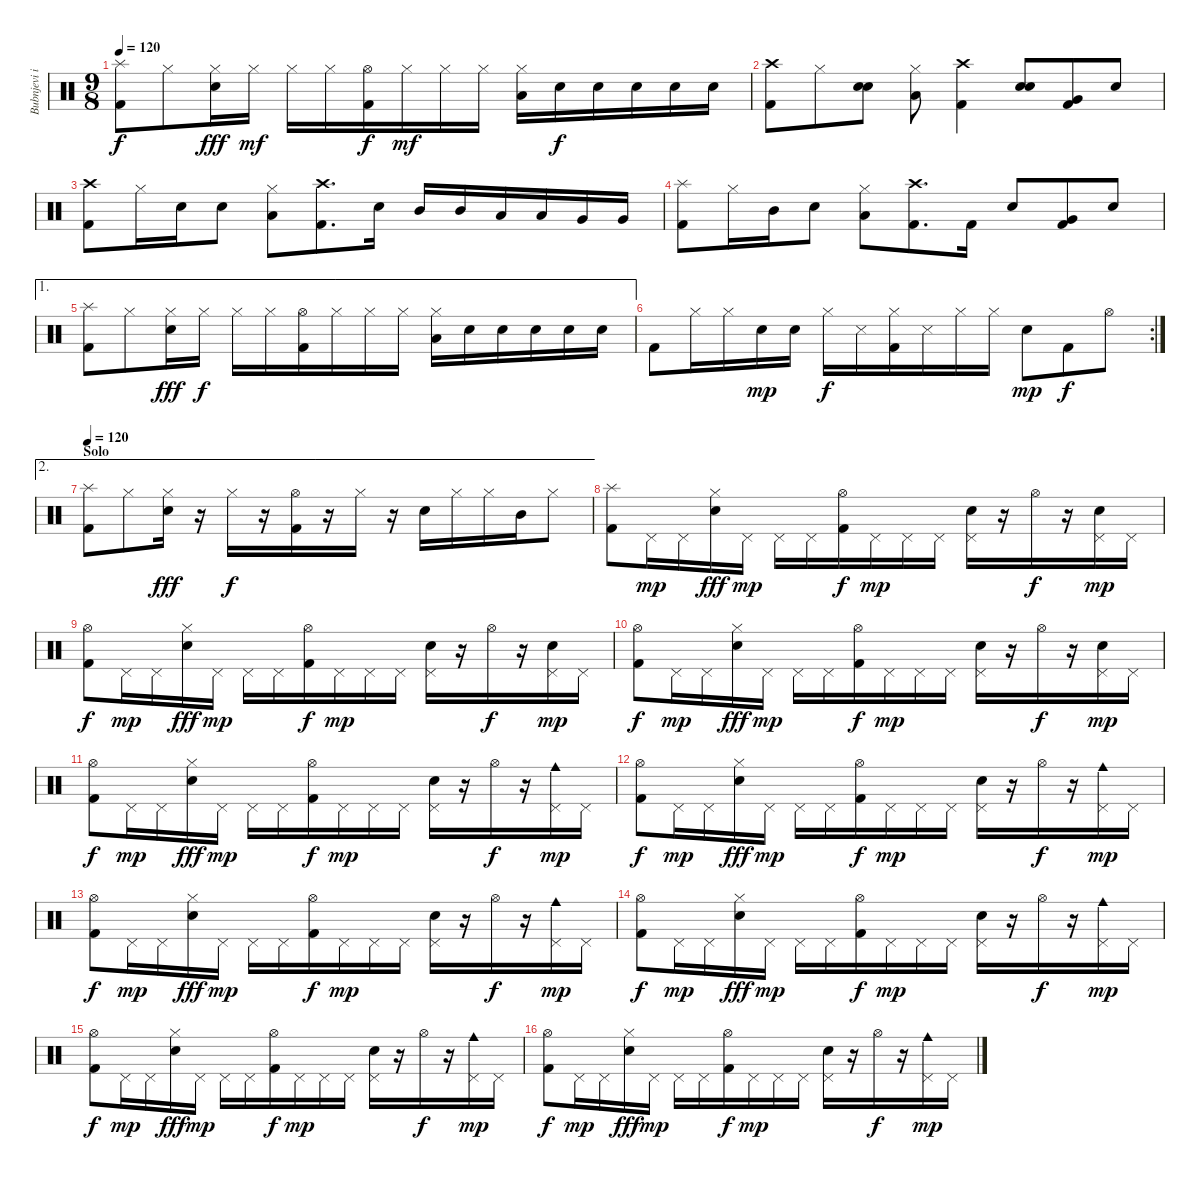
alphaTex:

\track ("Bubnjevi i perkusije" "Bubnjevi i") {instrument percussion}
\staff {score}
\articulation defaults
\ts (9 8)
\tempo 120
\clef neutral
\ks c
("Splash (hit)" "Kick (hit) 2").8{dy f} "Hi-Hat (closed)".8 ("Hi-Hat (closed)" "Electric Snare (hit)").16{dy fff} "Hi-Hat (closed)".16{dy mf} "Hi-Hat (closed)".16 "Hi-Hat (closed)".16 ("Hi-Hat (open)" "Kick (hit) 2").16{dy f} "Hi-Hat (closed)".16{dy mf} "Hi-Hat (closed)".16 "Hi-Hat (closed)".16 ("Hi-Hat (closed)" "Low Tom (hit)").16 "Electric Snare (hit)".16{dy f} "Electric Snare (hit)".16 "Electric Snare (hit)".16 "Electric Snare (hit)".16 "Electric Snare (hit)".16 |
("Crash high (hit)" "Kick (hit) 2").8 "Hi-Hat (closed)".8 ("Electric Snare (hit)" "Electric Snare (hit)").8{bd 60} ("Hi-Hat (closed)" "Low Tom (hit)").8 ("Crash high (hit)" "Kick (hit) 2").4 ("Electric Snare (hit)" "Electric Snare (hit)").8{bd 60} ("Very Low Tom (hit)" "Kick (hit) 2").8 "Electric Snare (hit)".8 |
("Crash high (hit)" "Kick (hit) 2").8 "Hi-Hat (closed)".16 "Electric Snare (hit)".16 "Electric Snare (hit)".8 ("Hi-Hat (closed)" "Low Tom (hit)").8 ("Crash high (hit)" "Kick (hit) 2").8{d} "Electric Snare (hit)".16 "Mid Tom (hit)".16 "Mid Tom (hit)".16 "Low Tom (hit)".16 "Low Tom (hit)".16 "Very Low Tom (hit)".16 "Very Low Tom (hit)".16 |
("Splash (hit)" "Kick (hit) 2").8 "Hi-Hat (closed)".16 "Mid Tom (hit)".16 "Electric Snare (hit)".8 ("Hi-Hat (closed)" "Low Tom (hit)").8 ("Crash high (hit)" "Kick (hit) 2").8{d} "Kick (hit) 2".16 "Electric Snare (hit)".8 ("Very Low Tom (hit)" "Kick (hit) 2").8 "Electric Snare (hit)".8 |
\ae 1
("Splash (hit)" "Kick (hit) 2").8 "Hi-Hat (closed)".8 ("Hi-Hat (closed)" "Electric Snare (hit)").16{dy fff} "Hi-Hat (closed)".16{dy f} "Hi-Hat (closed)".16 "Hi-Hat (closed)".16 ("Hi-Hat (open)" "Kick (hit) 2").16 "Hi-Hat (closed)".16 "Hi-Hat (closed)".16 "Hi-Hat (closed)".16 ("Hi-Hat (closed)" "Low Tom (hit)").16 "Electric Snare (hit)".16 "Electric Snare (hit)".16 "Electric Snare (hit)".16 "Electric Snare (hit)".16 "Electric Snare (hit)".16 |
\rc 2 "Kick (hit) 2".8 "Hi-Hat (closed)".16 "Hi-Hat (closed)".16 "Electric Snare (hit)".16{dy mp} "Electric Snare (hit)".16 "Hi-Hat (closed)".16{dy f} "Snare (side stick) 3".16
("Hi-Hat (closed)" "Kick (hit) 2").16 "Snare (side stick) 3".16 "Hi-Hat (closed)".16 "Hi-Hat (closed)".16 "Electric Snare (hit)".8{dy mp} "Kick (hit) 2".8{dy f} "Hi-Hat (open)".8 |
\ae 2
\section ("" "Solo")
\tempo 120
("Splash (hit)" "Kick (hit) 2").8 "Hi-Hat (closed)".8 ("Hi-Hat (closed)" "Electric Snare (hit)").16{dy fff} r.16 "Hi-Hat (closed)".16{dy f} r.16 ("Hi-Hat (open)" "Kick (hit) 2").16 r.16 "Hi-Hat (closed)".16 r.16 "Electric Snare (hit)".16 "Hi-Hat (closed)".16 "Hi-Hat (closed)".16 "Mid Tom (hit)".16 "Hi-Hat (closed)".8 |
("Splash (hit)" "Kick (hit) 2").8 "Pedal Hi-Hat (hit)".16{dy mp} "Pedal Hi-Hat (hit)".16 ("Hi-Hat (closed)" "Electric Snare (hit)").16{dy fff} "Pedal Hi-Hat (hit)".16{dy mp} "Pedal Hi-Hat (hit)".16 "Pedal Hi-Hat (hit)".16 ("Hi-Hat (open)" "Kick (hit) 2").16{dy f} "Pedal Hi-Hat (hit)".16{dy mp} "Pedal Hi-Hat (hit)".16 "Pedal Hi-Hat (hit)".16 ("Pedal Hi-Hat (hit)" "Electric Snare (hit)").16 r.16 "Hi-Hat (open)".16{dy f} r.16 ("Pedal Hi-Hat (hit)" "Electric Snare (hit)").16{dy mp} "Pedal Hi-Hat (hit)".16 |
("Hi-Hat (open)" "Kick (hit) 2").8{dy f} "Pedal Hi-Hat (hit)".16{dy mp} "Pedal Hi-Hat (hit)".16 ("Hi-Hat (closed)" "Electric Snare (hit)").16{dy fff} "Pedal Hi-Hat (hit)".16{dy mp} "Pedal Hi-Hat (hit)".16 "Pedal Hi-Hat (hit)".16 ("Hi-Hat (open)" "Kick (hit) 2").16{dy f} "Pedal Hi-Hat (hit)".16{dy mp} "Pedal Hi-Hat (hit)".16 "Pedal Hi-Hat (hit)".16 ("Pedal Hi-Hat (hit)" "Electric Snare (hit)").16 r.16 "Hi-Hat (open)".16{dy f} r.16 ("Pedal Hi-Hat (hit)" "Electric Snare (hit)").16{dy mp} "Pedal Hi-Hat (hit)".16 |
("Hi-Hat (open)" "Kick (hit) 2").8{dy f} "Pedal Hi-Hat (hit)".16{dy mp} "Pedal Hi-Hat (hit)".16 ("Hi-Hat (closed)" "Electric Snare (hit)").16{dy fff} "Pedal Hi-Hat (hit)".16{dy mp} "Pedal Hi-Hat (hit)".16 "Pedal Hi-Hat (hit)".16 ("Hi-Hat (open)" "Kick (hit) 2").16{dy f} "Pedal Hi-Hat (hit)".16{dy mp} "Pedal Hi-Hat (hit)".16 "Pedal Hi-Hat (hit)".16 ("Pedal Hi-Hat (hit)" "Electric Snare (hit)").16 r.16 "Hi-Hat (open)".16{dy f} r.16 ("Pedal Hi-Hat (hit)" "Electric Snare (hit)").16{dy mp} "Pedal Hi-Hat (hit)".16 |
("Hi-Hat (open)" "Kick (hit) 2").8{dy f} "Pedal Hi-Hat (hit)".16{dy mp} "Pedal Hi-Hat (hit)".16 ("Hi-Hat (closed)" "Electric Snare (hit)").16{dy fff} "Pedal Hi-Hat (hit)".16{dy mp} "Pedal Hi-Hat (hit)".16 "Pedal Hi-Hat (hit)".16 ("Hi-Hat (open)" "Kick (hit) 2").16{dy f} "Pedal Hi-Hat (hit)".16{dy mp} "Pedal Hi-Hat (hit)".16 "Pedal Hi-Hat (hit)".16 ("Pedal Hi-Hat (hit)" "Electric Snare (hit)").16 r.16 "Hi-Hat (open)".16{dy f} r.16 ("Pedal Hi-Hat (hit)" "Cowbell medium (hit)").16{dy mp} "Pedal Hi-Hat (hit)".16 |
("Hi-Hat (open)" "Kick (hit) 2").8{dy f} "Pedal Hi-Hat (hit)".16{dy mp} "Pedal Hi-Hat (hit)".16 ("Hi-Hat (closed)" "Electric Snare (hit)").16{dy fff} "Pedal Hi-Hat (hit)".16{dy mp} "Pedal Hi-Hat (hit)".16 "Pedal Hi-Hat (hit)".16 ("Hi-Hat (open)" "Kick (hit) 2").16{dy f} "Pedal Hi-Hat (hit)".16{dy mp} "Pedal Hi-Hat (hit)".16 "Pedal Hi-Hat (hit)".16 ("Pedal Hi-Hat (hit)" "Electric Snare (hit)").16 r.16 "Hi-Hat (open)".16{dy f} r.16 ("Pedal Hi-Hat (hit)" "Cowbell medium (hit)").16{dy mp} "Pedal Hi-Hat (hit)".16 |
("Hi-Hat (open)" "Kick (hit) 2").8{dy f} "Pedal Hi-Hat (hit)".16{dy mp} "Pedal Hi-Hat (hit)".16 ("Hi-Hat (closed)" "Electric Snare (hit)").16{dy fff} "Pedal Hi-Hat (hit)".16{dy mp} "Pedal Hi-Hat (hit)".16 "Pedal Hi-Hat (hit)".16 ("Hi-Hat (open)" "Kick (hit) 2").16{dy f} "Pedal Hi-Hat (hit)".16{dy mp} "Pedal Hi-Hat (hit)".16 "Pedal Hi-Hat (hit)".16 ("Pedal Hi-Hat (hit)" "Electric Snare (hit)").16 r.16 "Hi-Hat (open)".16{dy f} r.16 ("Pedal Hi-Hat (hit)" "Cowbell medium (hit)").16{dy mp} "Pedal Hi-Hat (hit)".16 |
("Hi-Hat (open)" "Kick (hit) 2").8{dy f} "Pedal Hi-Hat (hit)".16{dy mp} "Pedal Hi-Hat (hit)".16 ("Hi-Hat (closed)" "Electric Snare (hit)").16{dy fff} "Pedal Hi-Hat (hit)".16{dy mp} "Pedal Hi-Hat (hit)".16 "Pedal Hi-Hat (hit)".16 ("Hi-Hat (open)" "Kick (hit) 2").16{dy f} "Pedal Hi-Hat (hit)".16{dy mp} "Pedal Hi-Hat (hit)".16 "Pedal Hi-Hat (hit)".16 ("Pedal Hi-Hat (hit)" "Electric Snare (hit)").16 r.16 "Hi-Hat (open)".16{dy f} r.16 ("Pedal Hi-Hat (hit)" "Cowbell medium (hit)").16{dy mp} "Pedal Hi-Hat (hit)".16 |
("Hi-Hat (open)" "Kick (hit) 2").8{dy f} "Pedal Hi-Hat (hit)".16{dy mp} "Pedal Hi-Hat (hit)".16 ("Hi-Hat (closed)" "Electric Snare (hit)").16{dy fff} "Pedal Hi-Hat (hit)".16{dy mp} "Pedal Hi-Hat (hit)".16 "Pedal Hi-Hat (hit)".16 ("Hi-Hat (open)" "Kick (hit) 2").16{dy f} "Pedal Hi-Hat (hit)".16{dy mp} "Pedal Hi-Hat (hit)".16 "Pedal Hi-Hat (hit)".16 ("Pedal Hi-Hat (hit)" "Electric Snare (hit)").16 r.16 "Hi-Hat (open)".16{dy f} r.16 ("Pedal Hi-Hat (hit)" "Cowbell medium (hit)").16{dy mp} "Pedal Hi-Hat (hit)".16 |
("Hi-Hat (open)" "Kick (hit) 2").8{dy f} "Pedal Hi-Hat (hit)".16{dy mp} "Pedal Hi-Hat (hit)".16 ("Hi-Hat (closed)" "Electric Snare (hit)").16{dy fff} "Pedal Hi-Hat (hit)".16{dy mp} "Pedal Hi-Hat (hit)".16 "Pedal Hi-Hat (hit)".16 ("Hi-Hat (open)" "Kick (hit) 2").16{dy f} "Pedal Hi-Hat (hit)".16{dy mp} "Pedal Hi-Hat (hit)".16 "Pedal Hi-Hat (hit)".16 ("Pedal Hi-Hat (hit)" "Electric Snare (hit)").16 r.16 "Hi-Hat (open)".16{dy f} r.16 ("Pedal Hi-Hat (hit)" "Cowbell medium (hit)").16{dy mp} "Pedal Hi-Hat (hit)".16
